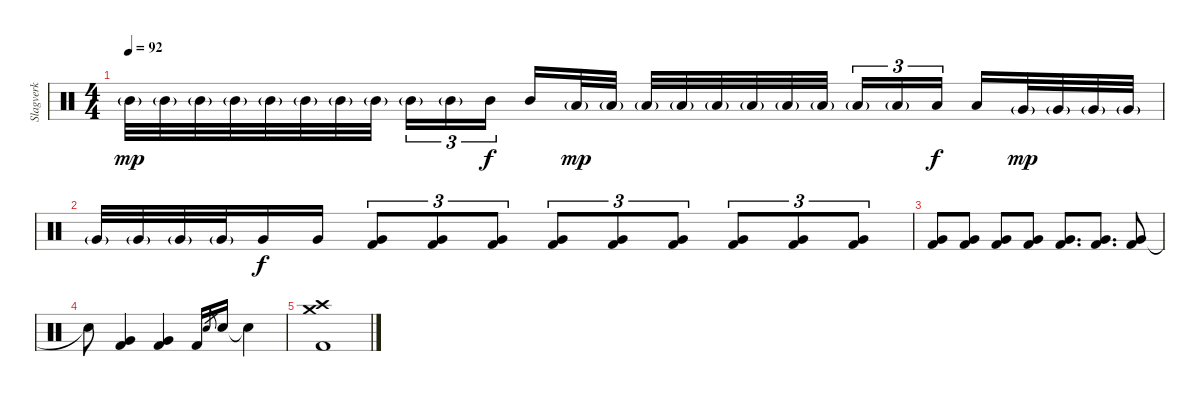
\track ("Slagverk" "Slagverk") {instrument percussion}
\staff {score}
\articulation defaults
\ts (4 4)
\tempo 92
\clef neutral
\ks c "Mid Tom (hit)"{g}.32{dy mp} "Mid Tom (hit)"{g}.32 "Mid Tom (hit)"{g}.32 "Mid Tom (hit)"{g}.32 "Mid Tom (hit)"{g}.32 "Mid Tom (hit)"{g}.32 "Mid Tom (hit)"{g}.32 "Mid Tom (hit)"{g}.32 "Mid Tom (hit)"{g}.16{tu (3 2)} "Mid Tom (hit)"{g}.16{tu (3 2)} "Mid Tom (hit)".16{tu (3 2) dy f beam splitsecondary} "Mid Tom (hit)".16 "Low Tom (hit)"{g}.32{dy mp} "Low Tom (hit)"{g}.32 "Low Tom (hit)"{g}.32 "Low Tom (hit)"{g}.32 "Low Tom (hit)"{g}.32 "Low Tom (hit)"{g}.32 "Low Tom (hit)"{g}.32 "Low Tom (hit)"{g}.32{beam splitsecondary} "Low Tom (hit)"{g}.16{tu (3 2)} "Low Tom (hit)"{g}.16{tu (3 2)} "Low Tom (hit)".16{tu (3 2) dy f beam splitsecondary} "Low Tom (hit)".16 "Very Low Tom (hit)"{g}.32{dy mp} "Very Low Tom (hit)"{g}.32 "Very Low Tom (hit)"{g}.32 "Very Low Tom (hit)"{g}.32
|
"Very Low Tom (hit)"{g}.32 "Very Low Tom (hit)"{g}.32 "Very Low Tom (hit)"{g}.32 "Very Low Tom (hit)"{g}.32 "Very Low Tom (hit)".16{dy f} "Very Low Tom (hit)".16 ("Very Low Tom (hit)" "Kick (hit) 2").8{tu (3 2)} ("Very Low Tom (hit)" "Kick (hit) 2").8{tu (3 2)} ("Very Low Tom (hit)" "Kick (hit) 2").8{tu (3 2)} ("Very Low Tom (hit)" "Kick (hit) 2").8{tu (3 2)} ("Very Low Tom (hit)" "Kick (hit) 2").8{tu (3 2)} ("Very Low Tom (hit)" "Kick (hit) 2").8{tu (3 2)} ("Very Low Tom (hit)" "Kick (hit) 2").8{tu (3 2)} ("Very Low Tom (hit)" "Kick (hit) 2").8{tu (3 2)} ("Very Low Tom (hit)" "Kick (hit) 2").8{tu (3 2)} |
("Very Low Tom (hit)" "Kick (hit) 2").8 ("Very Low Tom (hit)" "Kick (hit) 2").8 ("Very Low Tom (hit)" "Kick (hit) 2").8 ("Very Low Tom (hit)" "Kick (hit) 2").8 ("Very Low Tom (hit)" "Kick (hit) 2").8{d} ("Very Low Tom (hit)" "Kick (hit) 2").8{d} ("Very Low Tom (hit)" "Kick (hit) 2").8 |
"Snare (hit)"{t}.8 ("Very Low Tom (hit)" "Kick (hit) 2").4 ("Very Low Tom (hit)" "Kick (hit) 2").4 "Kick (hit) 2".16 "Electric Snare (hit)".8{gr} "Electric Snare (hit)".16 "Snare (hit)"{t}.4 |
("Crash medium (hit)" "Crash high (hit)" "Kick (hit) 2").1
